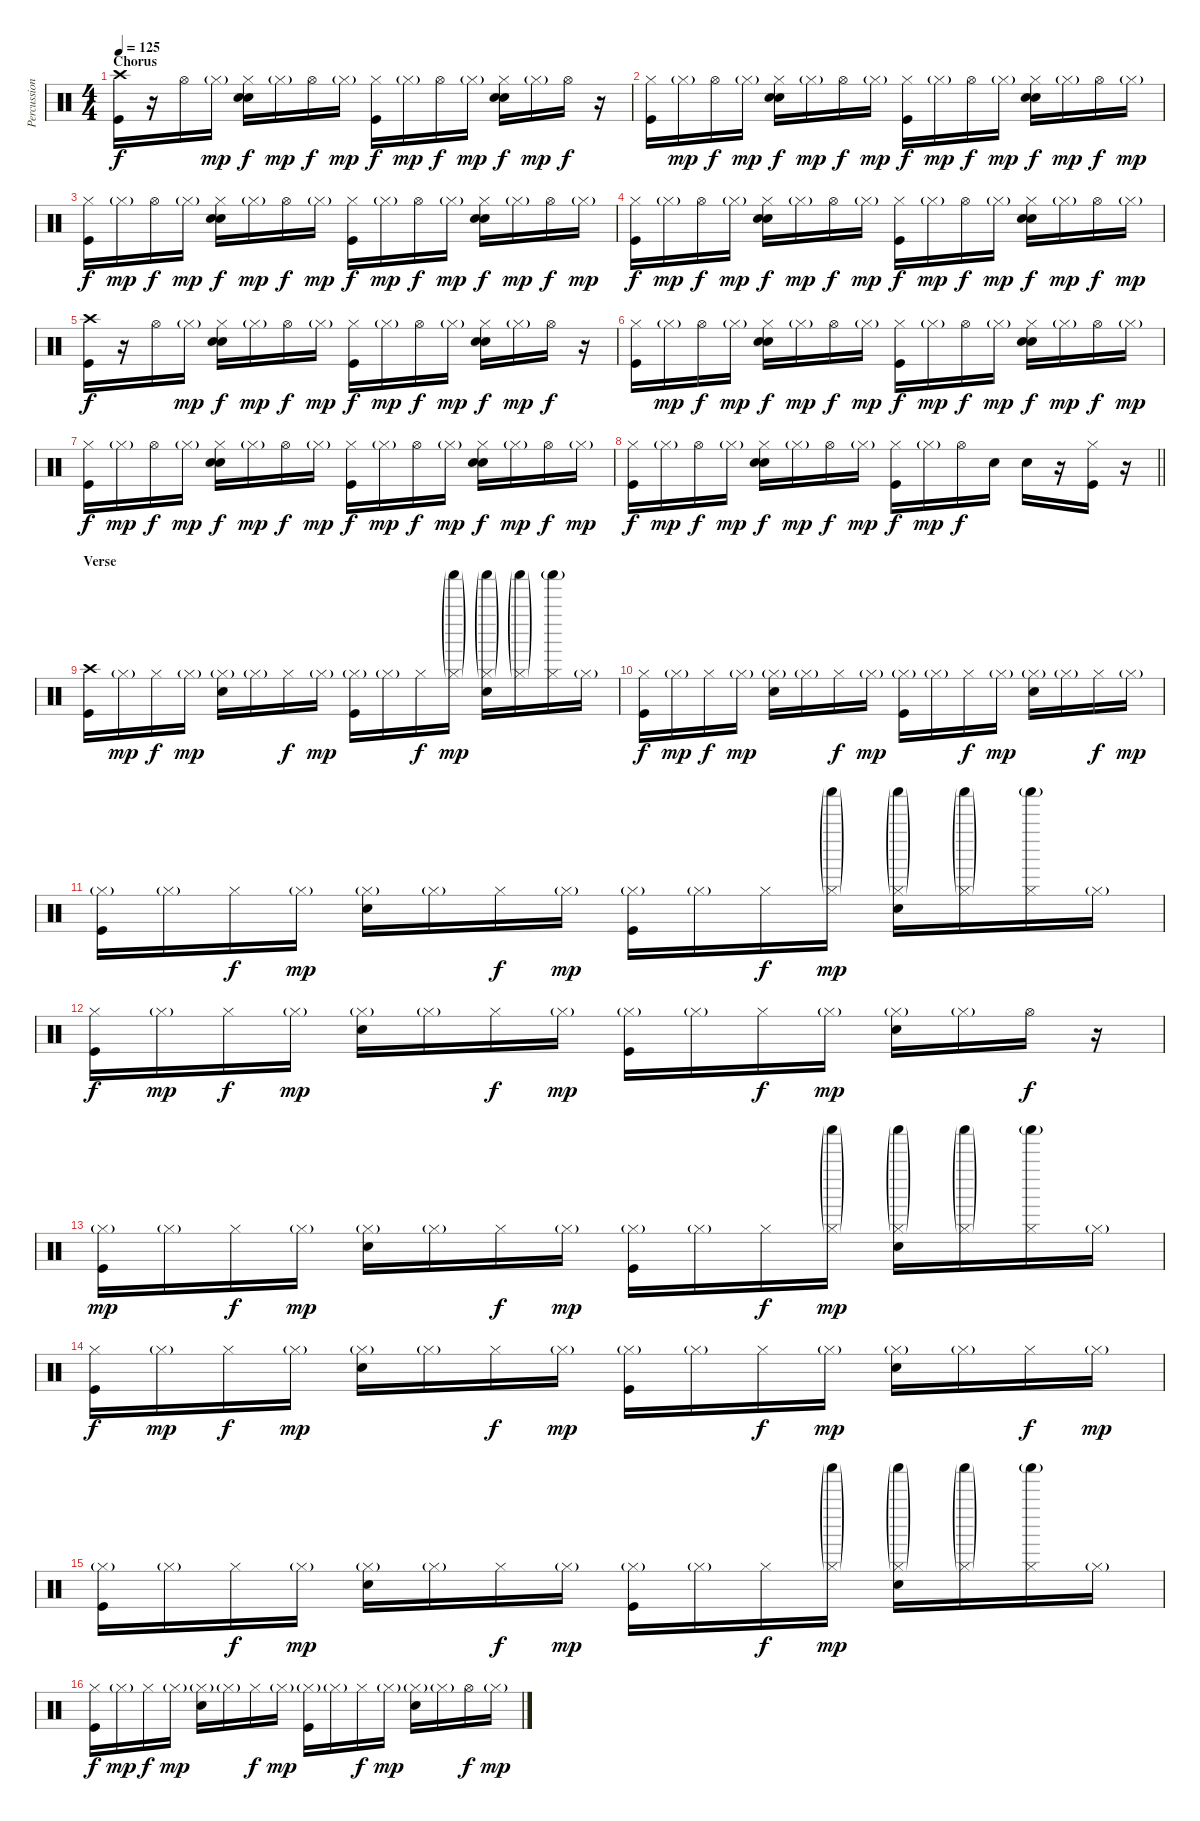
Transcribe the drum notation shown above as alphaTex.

\track ("Percussion" "Percussion") {instrument percussion}
\staff {score}
\articulation defaults
\ts (4 4)
\section ("" "Chorus")
\tempo 125
\clef neutral
\ks c
("Crash high (hit)" "Kick (hit)").16{dy f} r.16 "Hi-Hat (open)".16 "Hi-Hat (closed)"{g}.16{dy mp} ("Hi-Hat (closed)" "Hand Clap (hit)" "Snare (hit) 2").16{dy f} "Hi-Hat (closed)"{g}.16{dy mp} "Hi-Hat (open)".16{dy f} "Hi-Hat (closed)"{g}.16{dy mp} ("Hi-Hat (closed)" "Kick (hit)").16{dy f} "Hi-Hat (closed)"{g}.16{dy mp} "Hi-Hat (open)".16{dy f} "Hi-Hat (closed)"{g}.16{dy mp} ("Hi-Hat (closed)" "Hand Clap (hit)" "Snare (hit) 2").16{dy f} "Hi-Hat (closed)"{g}.16{dy mp} "Hi-Hat (open)".16{dy f} r.16 |
("Hi-Hat (closed)" "Kick (hit)").16 "Hi-Hat (closed)"{g}.16{dy mp} "Hi-Hat (open)".16{dy f} "Hi-Hat (closed)"{g}.16{dy mp} ("Hi-Hat (closed)" "Hand Clap (hit)" "Snare (hit) 2").16{dy f} "Hi-Hat (closed)"{g}.16{dy mp} "Hi-Hat (open)".16{dy f} "Hi-Hat (closed)"{g}.16{dy mp} ("Hi-Hat (closed)" "Kick (hit)").16{dy f} "Hi-Hat (closed)"{g}.16{dy mp} "Hi-Hat (open)".16{dy f} "Hi-Hat (closed)"{g}.16{dy mp} ("Hi-Hat (closed)" "Hand Clap (hit)" "Snare (hit) 2").16{dy f} "Hi-Hat (closed)"{g}.16{dy mp} "Hi-Hat (open)".16{dy f} "Hi-Hat (closed)"{g}.16{dy mp} |
("Hi-Hat (closed)" "Kick (hit)").16{dy f} "Hi-Hat (closed)"{g}.16{dy mp} "Hi-Hat (open)".16{dy f} "Hi-Hat (closed)"{g}.16{dy mp} ("Hi-Hat (closed)" "Hand Clap (hit)" "Snare (hit) 2").16{dy f} "Hi-Hat (closed)"{g}.16{dy mp} "Hi-Hat (open)".16{dy f} "Hi-Hat (closed)"{g}.16{dy mp} ("Hi-Hat (closed)" "Kick (hit)").16{dy f} "Hi-Hat (closed)"{g}.16{dy mp} "Hi-Hat (open)".16{dy f} "Hi-Hat (closed)"{g}.16{dy mp} ("Hi-Hat (closed)" "Hand Clap (hit)" "Snare (hit) 2").16{dy f} "Hi-Hat (closed)"{g}.16{dy mp} "Hi-Hat (open)".16{dy f} "Hi-Hat (closed)"{g}.16{dy mp} |
("Hi-Hat (closed)" "Kick (hit)").16{dy f} "Hi-Hat (closed)"{g}.16{dy mp} "Hi-Hat (open)".16{dy f} "Hi-Hat (closed)"{g}.16{dy mp} ("Hi-Hat (closed)" "Hand Clap (hit)" "Snare (hit) 2").16{dy f} "Hi-Hat (closed)"{g}.16{dy mp} "Hi-Hat (open)".16{dy f} "Hi-Hat (closed)"{g}.16{dy mp} ("Hi-Hat (closed)" "Kick (hit)").16{dy f} "Hi-Hat (closed)"{g}.16{dy mp} "Hi-Hat (open)".16{dy f} "Hi-Hat (closed)"{g}.16{dy mp} ("Hi-Hat (closed)" "Hand Clap (hit)" "Snare (hit) 2").16{dy f} "Hi-Hat (closed)"{g}.16{dy mp} "Hi-Hat (open)".16{dy f} "Hi-Hat (closed)"{g}.16{dy mp} |
("Crash high (hit)" "Kick (hit)").16{dy f} r.16 "Hi-Hat (open)".16 "Hi-Hat (closed)"{g}.16{dy mp} ("Hi-Hat (closed)" "Hand Clap (hit)" "Snare (hit) 2").16{dy f} "Hi-Hat (closed)"{g}.16{dy mp} "Hi-Hat (open)".16{dy f} "Hi-Hat (closed)"{g}.16{dy mp} ("Hi-Hat (closed)" "Kick (hit)").16{dy f} "Hi-Hat (closed)"{g}.16{dy mp} "Hi-Hat (open)".16{dy f} "Hi-Hat (closed)"{g}.16{dy mp} ("Hi-Hat (closed)" "Hand Clap (hit)" "Snare (hit) 2").16{dy f} "Hi-Hat (closed)"{g}.16{dy mp} "Hi-Hat (open)".16{dy f} r.16 |
("Hi-Hat (closed)" "Kick (hit)").16 "Hi-Hat (closed)"{g}.16{dy mp} "Hi-Hat (open)".16{dy f} "Hi-Hat (closed)"{g}.16{dy mp} ("Hi-Hat (closed)" "Hand Clap (hit)" "Snare (hit) 2").16{dy f} "Hi-Hat (closed)"{g}.16{dy mp} "Hi-Hat (open)".16{dy f} "Hi-Hat (closed)"{g}.16{dy mp} ("Hi-Hat (closed)" "Kick (hit)").16{dy f} "Hi-Hat (closed)"{g}.16{dy mp} "Hi-Hat (open)".16{dy f} "Hi-Hat (closed)"{g}.16{dy mp} ("Hi-Hat (closed)" "Hand Clap (hit)" "Snare (hit) 2").16{dy f} "Hi-Hat (closed)"{g}.16{dy mp} "Hi-Hat (open)".16{dy f} "Hi-Hat (closed)"{g}.16{dy mp} |
("Hi-Hat (closed)" "Kick (hit)").16{dy f} "Hi-Hat (closed)"{g}.16{dy mp} "Hi-Hat (open)".16{dy f} "Hi-Hat (closed)"{g}.16{dy mp} ("Hi-Hat (closed)" "Hand Clap (hit)" "Snare (hit) 2").16{dy f} "Hi-Hat (closed)"{g}.16{dy mp} "Hi-Hat (open)".16{dy f} "Hi-Hat (closed)"{g}.16{dy mp} ("Hi-Hat (closed)" "Kick (hit)").16{dy f} "Hi-Hat (closed)"{g}.16{dy mp} "Hi-Hat (open)".16{dy f} "Hi-Hat (closed)"{g}.16{dy mp} ("Hi-Hat (closed)" "Hand Clap (hit)" "Snare (hit) 2").16{dy f} "Hi-Hat (closed)"{g}.16{dy mp} "Hi-Hat (open)".16{dy f} "Hi-Hat (closed)"{g}.16{dy mp} |
\barLineRight lightlight
("Hi-Hat (closed)" "Kick (hit)").16{dy f} "Hi-Hat (closed)"{g}.16{dy mp} "Hi-Hat (open)".16{dy f} "Hi-Hat (closed)"{g}.16{dy mp} ("Hi-Hat (closed)" "Hand Clap (hit)" "Snare (hit) 2").16{dy f} "Hi-Hat (closed)"{g}.16{dy mp} "Hi-Hat (open)".16{dy f} "Hi-Hat (closed)"{g}.16{dy mp} ("Hi-Hat (closed)" "Kick (hit)").16{dy f} "Hi-Hat (closed)"{g}.16{dy mp} "Hi-Hat (open)".16{dy f} "Snare (hit) 2".16 "Snare (hit) 2".16 r.16 ("Hi-Hat (closed)" "Kick (hit)").16 r.16 |
\section ("" "Verse")
("Crash high (hit)" "Kick (hit)").16 "Hi-Hat (closed)"{g}.16{dy mp} "Hi-Hat (closed)".16{dy f} "Hi-Hat (closed)"{g}.16{dy mp} ("Hi-Hat (closed)"{g} "Snare (hit) 2").16 "Hi-Hat (closed)"{g}.16 "Hi-Hat (closed)".16{dy f} "Hi-Hat (closed)"{g}.16{dy mp} ("Hi-Hat (closed)"{g} "Kick (hit)").16 "Hi-Hat (closed)"{g}.16 "Hi-Hat (closed)".16{dy f} ("Shaker (hit)"{g} "Hi-Hat (closed)"{g}).16{dy mp} ("Shaker (hit)"{g} "Hi-Hat (closed)"{g} "Snare (hit) 2").16 ("Shaker (hit)"{g} "Hi-Hat (closed)"{g}).16 ("Shaker (hit)"{g} "Hi-Hat (closed)").16 "Hi-Hat (closed)"{g}.16 |
("Hi-Hat (closed)" "Kick (hit)").16{dy f} "Hi-Hat (closed)"{g}.16{dy mp} "Hi-Hat (closed)".16{dy f} "Hi-Hat (closed)"{g}.16{dy mp} ("Hi-Hat (closed)"{g} "Snare (hit) 2").16 "Hi-Hat (closed)"{g}.16 "Hi-Hat (closed)".16{dy f} "Hi-Hat (closed)"{g}.16{dy mp} ("Hi-Hat (closed)"{g} "Kick (hit)").16 "Hi-Hat (closed)"{g}.16 "Hi-Hat (closed)".16{dy f} "Hi-Hat (closed)"{g}.16{dy mp} ("Hi-Hat (closed)"{g} "Snare (hit) 2").16 "Hi-Hat (closed)"{g}.16 "Hi-Hat (closed)".16{dy f} "Hi-Hat (closed)"{g}.16{dy mp} |
("Hi-Hat (closed)"{g} "Kick (hit)").16 "Hi-Hat (closed)"{g}.16 "Hi-Hat (closed)".16{dy f} "Hi-Hat (closed)"{g}.16{dy mp} ("Hi-Hat (closed)"{g} "Snare (hit) 2").16 "Hi-Hat (closed)"{g}.16 "Hi-Hat (closed)".16{dy f} "Hi-Hat (closed)"{g}.16{dy mp} ("Hi-Hat (closed)"{g} "Kick (hit)").16 "Hi-Hat (closed)"{g}.16 "Hi-Hat (closed)".16{dy f} ("Shaker (hit)"{g} "Hi-Hat (closed)"{g}).16{dy mp} ("Shaker (hit)"{g} "Hi-Hat (closed)"{g} "Snare (hit) 2").16 ("Shaker (hit)"{g} "Hi-Hat (closed)"{g}).16 ("Shaker (hit)"{g} "Hi-Hat (closed)").16 "Hi-Hat (closed)"{g}.16 |
("Hi-Hat (closed)" "Kick (hit)").16{dy f} "Hi-Hat (closed)"{g}.16{dy mp} "Hi-Hat (closed)".16{dy f} "Hi-Hat (closed)"{g}.16{dy mp} ("Hi-Hat (closed)"{g} "Snare (hit) 2").16 "Hi-Hat (closed)"{g}.16 "Hi-Hat (closed)".16{dy f} "Hi-Hat (closed)"{g}.16{dy mp} ("Hi-Hat (closed)"{g} "Kick (hit)").16 "Hi-Hat (closed)"{g}.16 "Hi-Hat (closed)".16{dy f} "Hi-Hat (closed)"{g}.16{dy mp} ("Hi-Hat (closed)"{g} "Snare (hit) 2").16 "Hi-Hat (closed)"{g}.16 "Hi-Hat (open)".16{dy f} r.16 |
("Hi-Hat (closed)"{g} "Kick (hit)").16{dy mp} "Hi-Hat (closed)"{g}.16 "Hi-Hat (closed)".16{dy f} "Hi-Hat (closed)"{g}.16{dy mp} ("Hi-Hat (closed)"{g} "Snare (hit) 2").16 "Hi-Hat (closed)"{g}.16 "Hi-Hat (closed)".16{dy f} "Hi-Hat (closed)"{g}.16{dy mp} ("Hi-Hat (closed)"{g} "Kick (hit)").16 "Hi-Hat (closed)"{g}.16 "Hi-Hat (closed)".16{dy f} ("Shaker (hit)"{g} "Hi-Hat (closed)"{g}).16{dy mp} ("Shaker (hit)"{g} "Hi-Hat (closed)"{g} "Snare (hit) 2").16 ("Shaker (hit)"{g} "Hi-Hat (closed)"{g}).16 ("Shaker (hit)"{g} "Hi-Hat (closed)").16 "Hi-Hat (closed)"{g}.16 |
("Hi-Hat (closed)" "Kick (hit)").16{dy f} "Hi-Hat (closed)"{g}.16{dy mp} "Hi-Hat (closed)".16{dy f} "Hi-Hat (closed)"{g}.16{dy mp} ("Hi-Hat (closed)"{g} "Snare (hit) 2").16 "Hi-Hat (closed)"{g}.16 "Hi-Hat (closed)".16{dy f} "Hi-Hat (closed)"{g}.16{dy mp} ("Hi-Hat (closed)"{g} "Kick (hit)").16 "Hi-Hat (closed)"{g}.16 "Hi-Hat (closed)".16{dy f} "Hi-Hat (closed)"{g}.16{dy mp} ("Hi-Hat (closed)"{g} "Snare (hit) 2").16 "Hi-Hat (closed)"{g}.16 "Hi-Hat (closed)".16{dy f} "Hi-Hat (closed)"{g}.16{dy mp} |
("Hi-Hat (closed)"{g} "Kick (hit)").16 "Hi-Hat (closed)"{g}.16 "Hi-Hat (closed)".16{dy f} "Hi-Hat (closed)"{g}.16{dy mp} ("Hi-Hat (closed)"{g} "Snare (hit) 2").16 "Hi-Hat (closed)"{g}.16 "Hi-Hat (closed)".16{dy f} "Hi-Hat (closed)"{g}.16{dy mp} ("Hi-Hat (closed)"{g} "Kick (hit)").16 "Hi-Hat (closed)"{g}.16 "Hi-Hat (closed)".16{dy f} ("Shaker (hit)"{g} "Hi-Hat (closed)"{g}).16{dy mp} ("Shaker (hit)"{g} "Hi-Hat (closed)"{g} "Snare (hit) 2").16 ("Shaker (hit)"{g} "Hi-Hat (closed)"{g}).16 ("Shaker (hit)"{g} "Hi-Hat (closed)").16 "Hi-Hat (closed)"{g}.16 |
("Hi-Hat (closed)" "Kick (hit)").16{dy f} "Hi-Hat (closed)"{g}.16{dy mp} "Hi-Hat (closed)".16{dy f} "Hi-Hat (closed)"{g}.16{dy mp} ("Hi-Hat (closed)"{g} "Snare (hit) 2").16 "Hi-Hat (closed)"{g}.16 "Hi-Hat (closed)".16{dy f} "Hi-Hat (closed)"{g}.16{dy mp} ("Hi-Hat (closed)"{g} "Kick (hit)").16 "Hi-Hat (closed)"{g}.16 "Hi-Hat (closed)".16{dy f} "Hi-Hat (closed)"{g}.16{dy mp} ("Hi-Hat (closed)"{g} "Snare (hit) 2").16 "Hi-Hat (closed)"{g}.16 "Hi-Hat (open)".16{dy f} "Hi-Hat (closed)"{g}.16{dy mp}
